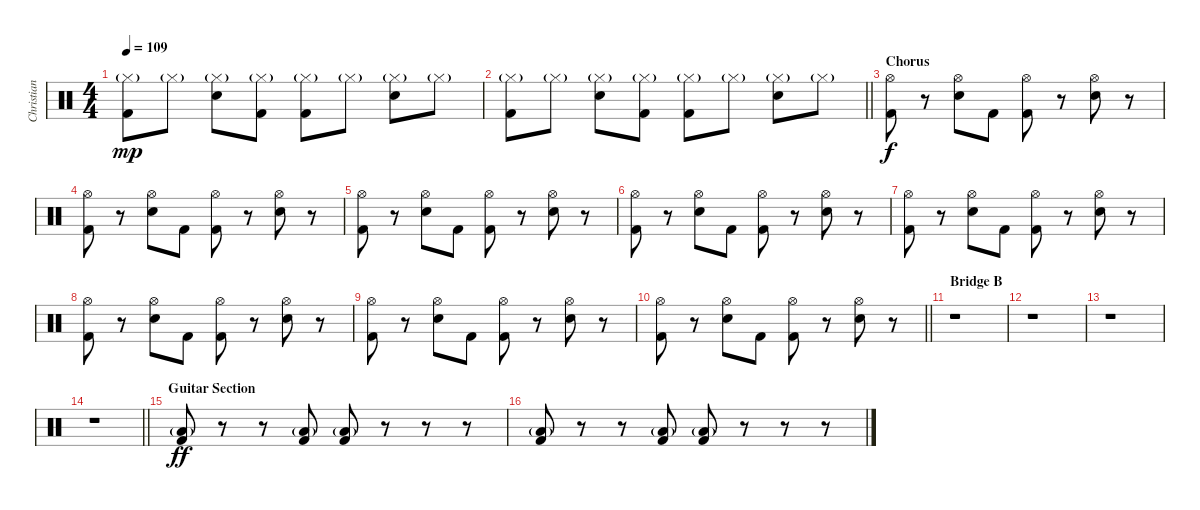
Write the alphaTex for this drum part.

\track ("Christian Eigner - Drums" "Christian ") {instrument percussion}
\staff {score}
\articulation defaults
\ts (4 4)
\tempo 109
\clef neutral
\ks c
("Hi-Hat (closed)"{g} "Kick (hit) 2").8{dy mp} "Hi-Hat (closed)"{g}.8 ("Hi-Hat (closed)"{g} "Snare (hit) 2").8 ("Hi-Hat (closed)"{g} "Kick (hit) 2").8 ("Hi-Hat (closed)"{g} "Kick (hit) 2").8 "Hi-Hat (closed)"{g}.8 ("Hi-Hat (closed)"{g} "Snare (hit) 2").8 "Hi-Hat (closed)"{g}.8 |
\barLineRight lightlight
("Hi-Hat (closed)"{g} "Kick (hit) 2").8 "Hi-Hat (closed)"{g}.8 ("Hi-Hat (closed)"{g} "Snare (hit) 2").8 ("Hi-Hat (closed)"{g} "Kick (hit) 2").8 ("Hi-Hat (closed)"{g} "Kick (hit) 2").8 "Hi-Hat (closed)"{g}.8 ("Hi-Hat (closed)"{g} "Snare (hit) 2").8 "Hi-Hat (closed)"{g}.8 |
\section ("" "Chorus")
("Hi-Hat (open)" "Kick (hit) 2").8{dy f} r.8 ("Hi-Hat (open)" "Snare (hit) 2").8 "Kick (hit) 2".8 ("Hi-Hat (open)" "Kick (hit) 2").8 r.8 ("Hi-Hat (open)" "Snare (hit) 2").8 r.8 |
("Hi-Hat (open)" "Kick (hit) 2").8 r.8 ("Hi-Hat (open)" "Snare (hit) 2").8 "Kick (hit) 2".8 ("Hi-Hat (open)" "Kick (hit) 2").8 r.8 ("Hi-Hat (open)" "Snare (hit) 2").8 r.8 |
("Hi-Hat (open)" "Kick (hit) 2").8 r.8 ("Hi-Hat (open)" "Snare (hit) 2").8 "Kick (hit) 2".8 ("Hi-Hat (open)" "Kick (hit) 2").8 r.8 ("Hi-Hat (open)" "Snare (hit) 2").8 r.8 |
("Hi-Hat (open)" "Kick (hit) 2").8 r.8 ("Hi-Hat (open)" "Snare (hit) 2").8 "Kick (hit) 2".8 ("Hi-Hat (open)" "Kick (hit) 2").8 r.8 ("Hi-Hat (open)" "Snare (hit) 2").8 r.8 |
("Hi-Hat (open)" "Kick (hit) 2").8 r.8 ("Hi-Hat (open)" "Snare (hit) 2").8 "Kick (hit) 2".8 ("Hi-Hat (open)" "Kick (hit) 2").8 r.8 ("Hi-Hat (open)" "Snare (hit) 2").8 r.8 |
("Hi-Hat (open)" "Kick (hit) 2").8 r.8 ("Hi-Hat (open)" "Snare (hit) 2").8 "Kick (hit) 2".8 ("Hi-Hat (open)" "Kick (hit) 2").8 r.8 ("Hi-Hat (open)" "Snare (hit) 2").8 r.8 |
("Hi-Hat (open)" "Kick (hit) 2").8 r.8 ("Hi-Hat (open)" "Snare (hit) 2").8 "Kick (hit) 2".8 ("Hi-Hat (open)" "Kick (hit) 2").8 r.8 ("Hi-Hat (open)" "Snare (hit) 2").8 r.8 |
\barLineRight lightlight
("Hi-Hat (open)" "Kick (hit) 2").8 r.8 ("Hi-Hat (open)" "Snare (hit) 2").8 "Kick (hit) 2".8 ("Hi-Hat (open)" "Kick (hit) 2").8 r.8 ("Hi-Hat (open)" "Snare (hit) 2").8 r.8 |
\section ("" "Bridge B")
r.1 |
r.1 |
r.1 |
\barLineRight lightlight
r.1 |
\section ("" "Guitar Section")
("Low Floor Tom (hit)"{g} "Kick (hit) 2").8{dy ff} r.8 r.8 ("Low Floor Tom (hit)"{g} "Kick (hit) 2").8 ("Low Floor Tom (hit)"{g} "Kick (hit) 2").8 r.8 r.8 r.8 |
("Low Floor Tom (hit)"{g} "Kick (hit) 2").8 r.8 r.8 ("Low Floor Tom (hit)"{g} "Kick (hit) 2").8 ("Low Floor Tom (hit)"{g} "Kick (hit) 2").8 r.8 r.8 r.8
